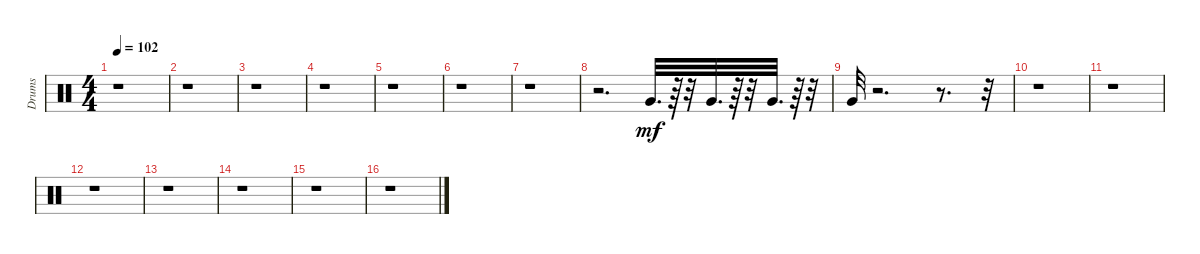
\track ("Drums   " "Drums   ") {instrument percussion}
\staff {score}
\articulation defaults
\ts (4 4)
\tempo 102
\clef neutral
\ks c
r.1{dy mf} |
r.1 |
r.1 |
r.1 |
r.1 |
r.1 |
r.1 |
r.2{d} "Very Low Tom (hit)".32{d} r.64 r.32 "Very Low Tom (hit)".32{d} r.64 r.32 "Very Low Tom (hit)".32{d} r.64 r.32 |
"Very Low Tom (hit)".32 r.2{d} r.8{d} r.32 |
r.1 |
r.1 |
r.1 |
r.1 |
r.1 |
r.1 |
r.1
